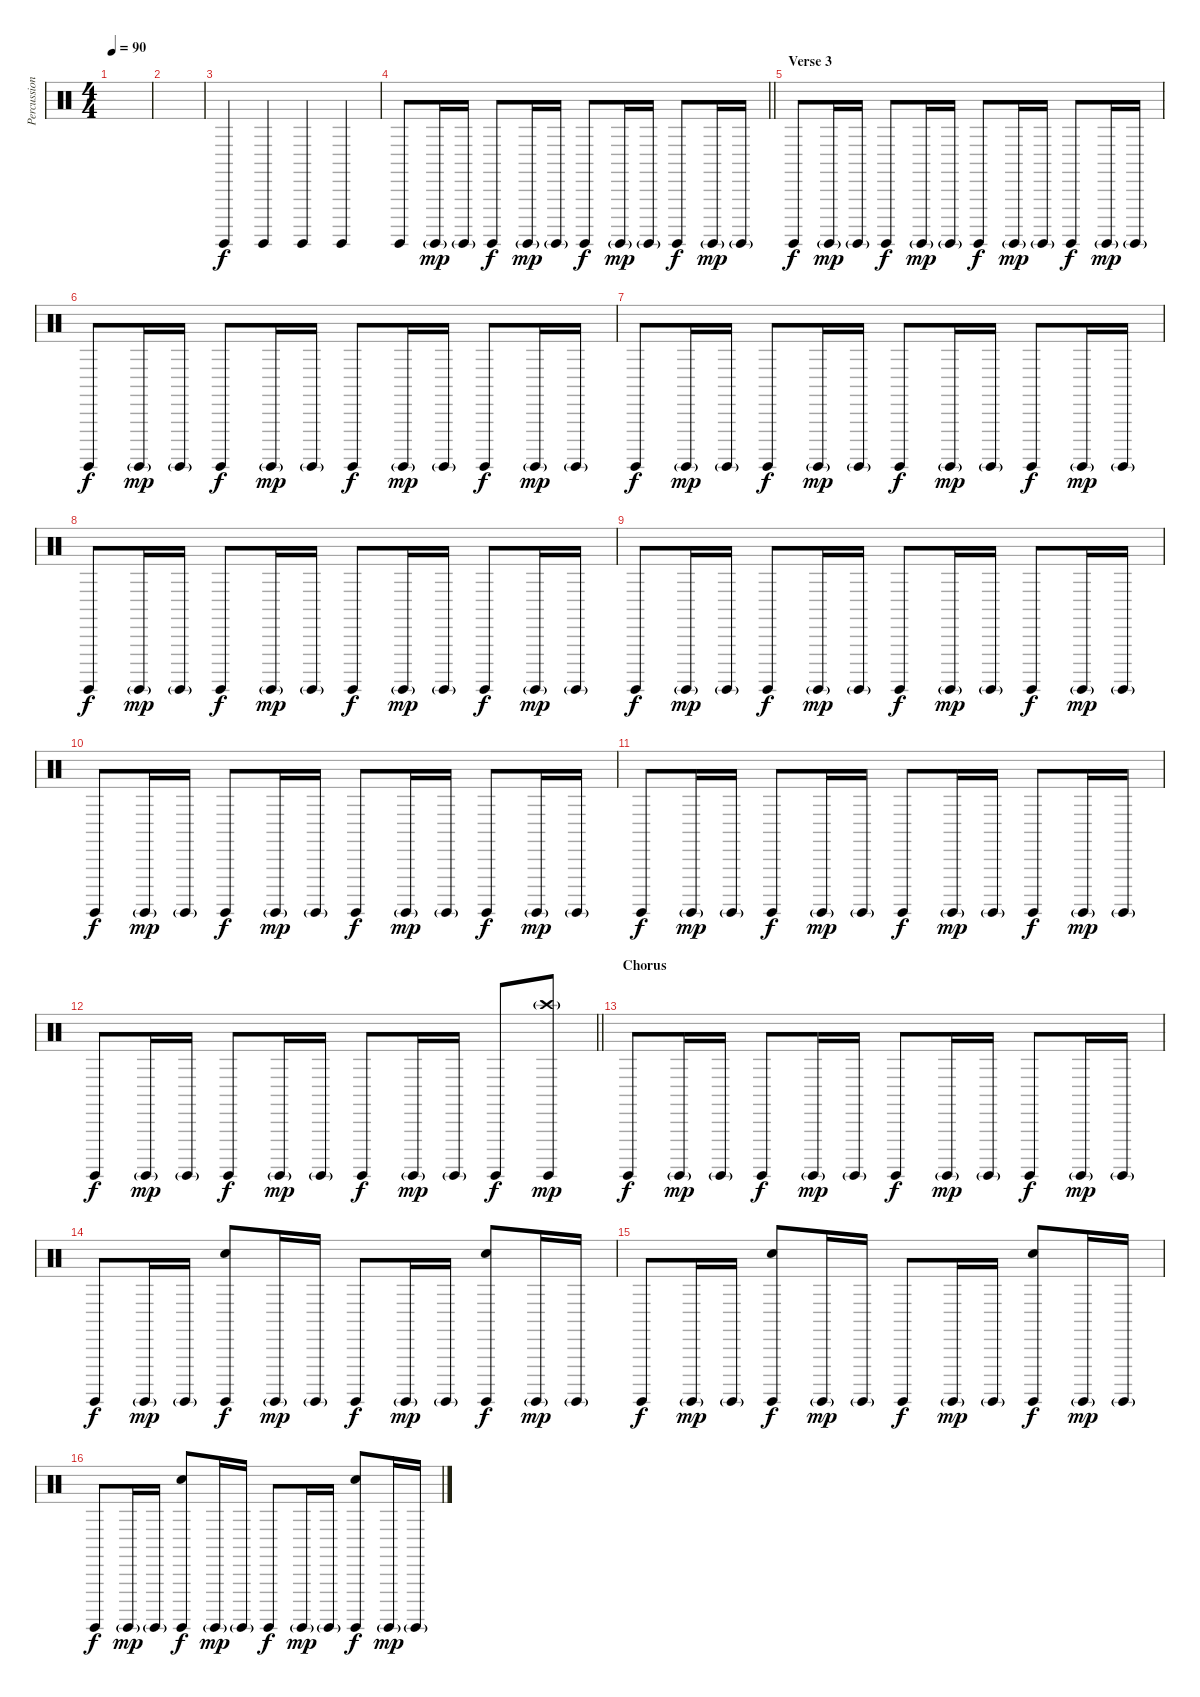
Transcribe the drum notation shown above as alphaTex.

\track ("Percussion" "Percussion") {instrument percussion}
\staff {score}
\articulation defaults
\ts (4 4)
\tempo 90
\clef neutral
\ks c
|
|
"Surdo (hit)".4 "Surdo (hit)".4 "Surdo (hit)".4 "Surdo (hit)".4 |
\barLineRight lightlight "Surdo (hit)".8 "Surdo (hit)"{g}.16{dy mp} "Surdo (hit)"{g}.16 "Surdo (hit)".8{dy f} "Surdo (hit)"{g}.16{dy mp} "Surdo (hit)"{g}.16 "Surdo (hit)".8{dy f} "Surdo (hit)"{g}.16{dy mp} "Surdo (hit)"{g}.16 "Surdo (hit)".8{dy f} "Surdo (hit)"{g}.16{dy mp} "Surdo (hit)"{g}.16
|
\section ("" "Verse 3")
"Surdo (hit)".8{dy f} "Surdo (hit)"{g}.16{dy mp} "Surdo (hit)"{g}.16 "Surdo (hit)".8{dy f} "Surdo (hit)"{g}.16{dy mp} "Surdo (hit)"{g}.16 "Surdo (hit)".8{dy f} "Surdo (hit)"{g}.16{dy mp} "Surdo (hit)"{g}.16 "Surdo (hit)".8{dy f} "Surdo (hit)"{g}.16{dy mp} "Surdo (hit)"{g}.16 |
"Surdo (hit)".8{dy f} "Surdo (hit)"{g}.16{dy mp} "Surdo (hit)"{g}.16 "Surdo (hit)".8{dy f} "Surdo (hit)"{g}.16{dy mp} "Surdo (hit)"{g}.16 "Surdo (hit)".8{dy f} "Surdo (hit)"{g}.16{dy mp} "Surdo (hit)"{g}.16 "Surdo (hit)".8{dy f} "Surdo (hit)"{g}.16{dy mp} "Surdo (hit)"{g}.16 |
"Surdo (hit)".8{dy f} "Surdo (hit)"{g}.16{dy mp} "Surdo (hit)"{g}.16 "Surdo (hit)".8{dy f} "Surdo (hit)"{g}.16{dy mp} "Surdo (hit)"{g}.16 "Surdo (hit)".8{dy f} "Surdo (hit)"{g}.16{dy mp} "Surdo (hit)"{g}.16 "Surdo (hit)".8{dy f} "Surdo (hit)"{g}.16{dy mp} "Surdo (hit)"{g}.16 |
"Surdo (hit)".8{dy f} "Surdo (hit)"{g}.16{dy mp} "Surdo (hit)"{g}.16 "Surdo (hit)".8{dy f} "Surdo (hit)"{g}.16{dy mp} "Surdo (hit)"{g}.16 "Surdo (hit)".8{dy f} "Surdo (hit)"{g}.16{dy mp} "Surdo (hit)"{g}.16 "Surdo (hit)".8{dy f} "Surdo (hit)"{g}.16{dy mp} "Surdo (hit)"{g}.16 |
"Surdo (hit)".8{dy f} "Surdo (hit)"{g}.16{dy mp} "Surdo (hit)"{g}.16 "Surdo (hit)".8{dy f} "Surdo (hit)"{g}.16{dy mp} "Surdo (hit)"{g}.16 "Surdo (hit)".8{dy f} "Surdo (hit)"{g}.16{dy mp} "Surdo (hit)"{g}.16 "Surdo (hit)".8{dy f} "Surdo (hit)"{g}.16{dy mp} "Surdo (hit)"{g}.16 |
"Surdo (hit)".8{dy f} "Surdo (hit)"{g}.16{dy mp} "Surdo (hit)"{g}.16 "Surdo (hit)".8{dy f} "Surdo (hit)"{g}.16{dy mp} "Surdo (hit)"{g}.16 "Surdo (hit)".8{dy f} "Surdo (hit)"{g}.16{dy mp} "Surdo (hit)"{g}.16 "Surdo (hit)".8{dy f} "Surdo (hit)"{g}.16{dy mp} "Surdo (hit)"{g}.16 |
"Surdo (hit)".8{dy f} "Surdo (hit)"{g}.16{dy mp} "Surdo (hit)"{g}.16 "Surdo (hit)".8{dy f} "Surdo (hit)"{g}.16{dy mp} "Surdo (hit)"{g}.16 "Surdo (hit)".8{dy f} "Surdo (hit)"{g}.16{dy mp} "Surdo (hit)"{g}.16 "Surdo (hit)".8{dy f} "Surdo (hit)"{g}.16{dy mp} "Surdo (hit)"{g}.16 |
\barLineRight lightlight "Surdo (hit)".8{dy f} "Surdo (hit)"{g}.16{dy mp} "Surdo (hit)"{g}.16 "Surdo (hit)".8{dy f} "Surdo (hit)"{g}.16{dy mp} "Surdo (hit)"{g}.16 "Surdo (hit)".8{dy f} "Surdo (hit)"{g}.16{dy mp} "Surdo (hit)"{g}.16 "Surdo (hit)".8{dy f}
("Surdo (hit)" "Crash high (hit)"{g}).8{dy mp} |
\section ("" "Chorus")
"Surdo (hit)".8{dy f} "Surdo (hit)"{g}.16{dy mp} "Surdo (hit)"{g}.16 "Surdo (hit)".8{dy f} "Surdo (hit)"{g}.16{dy mp} "Surdo (hit)"{g}.16 "Surdo (hit)".8{dy f} "Surdo (hit)"{g}.16{dy mp} "Surdo (hit)"{g}.16 "Surdo (hit)".8{dy f} "Surdo (hit)"{g}.16{dy mp} "Surdo (hit)"{g}.16 |
"Surdo (hit)".8{dy f} "Surdo (hit)"{g}.16{dy mp} "Surdo (hit)"{g}.16 ("Surdo (hit)" "Hand Clap (hit)").8{dy f} "Surdo (hit)"{g}.16{dy mp} "Surdo (hit)"{g}.16 "Surdo (hit)".8{dy f} "Surdo (hit)"{g}.16{dy mp} "Surdo (hit)"{g}.16 ("Surdo (hit)" "Hand Clap (hit)").8{dy f} "Surdo (hit)"{g}.16{dy mp} "Surdo (hit)"{g}.16 |
"Surdo (hit)".8{dy f} "Surdo (hit)"{g}.16{dy mp} "Surdo (hit)"{g}.16 ("Surdo (hit)" "Hand Clap (hit)").8{dy f} "Surdo (hit)"{g}.16{dy mp} "Surdo (hit)"{g}.16 "Surdo (hit)".8{dy f} "Surdo (hit)"{g}.16{dy mp} "Surdo (hit)"{g}.16 ("Surdo (hit)" "Hand Clap (hit)").8{dy f} "Surdo (hit)"{g}.16{dy mp} "Surdo (hit)"{g}.16 |
"Surdo (hit)".8{dy f} "Surdo (hit)"{g}.16{dy mp} "Surdo (hit)"{g}.16 ("Surdo (hit)" "Hand Clap (hit)").8{dy f} "Surdo (hit)"{g}.16{dy mp} "Surdo (hit)"{g}.16 "Surdo (hit)".8{dy f} "Surdo (hit)"{g}.16{dy mp} "Surdo (hit)"{g}.16 ("Surdo (hit)" "Hand Clap (hit)").8{dy f} "Surdo (hit)"{g}.16{dy mp} "Surdo (hit)"{g}.16
